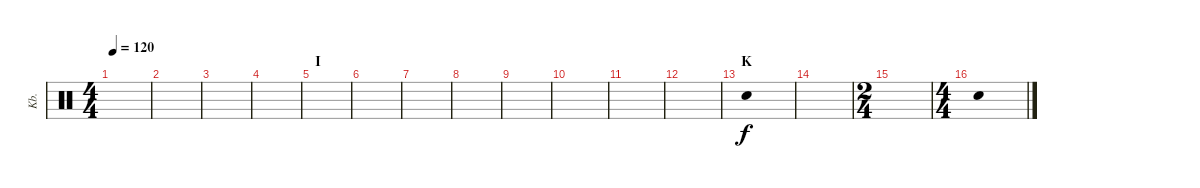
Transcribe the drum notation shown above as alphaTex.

\track ("Kb." "Kb.") {instrument percussion}
\staff {score}
\articulation defaults
\ts (4 4)
\tempo 120
\clef neutral
\ks c
|
|
|
|
\section ("" "I")
|
|
|
|
|
|
|
|
\section ("" "K")
"Metronome (bell)".1 |
|
\ts (2 4)
|
\ts (4 4)
"Metronome (bell)".1
